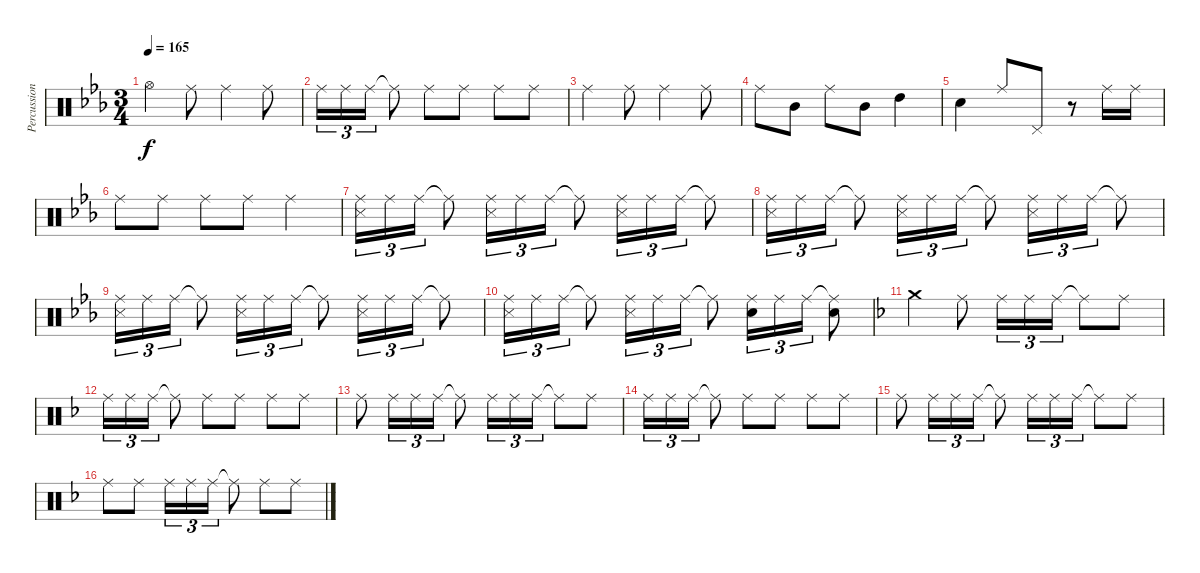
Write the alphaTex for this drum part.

\track ("Percussion" "Percussion") {instrument percussion}
\staff {score}
\articulation defaults
\ts (3 4)
\tempo 165
\clef neutral
\ks eb "Hi-Hat (open)".4{dy f} "Ride (middle)".8 "Ride (middle)".4 "Ride (middle)".8
|
"Ride (middle)".16{tu (3 2)} "Ride (middle)".16{tu (3 2)} "Ride (middle)".16{tu (3 2)} "Ride (middle)"{t}.8 "Ride (middle)".8 "Ride (middle)".8 "Ride (middle)".8 "Ride (middle)".8 |
"Ride (middle)".4 "Ride (middle)".8 "Ride (middle)".4 "Ride (middle)".8 |
"Ride (middle)".8 "Mid Tom (hit)".8 "Ride (middle)".8 "Mid Tom (hit)".8 "High Tom (hit)".4 |
"Snare (hit) 2".4 "Ride (middle)".8 "Pedal Hi-Hat (hit)".8 r.8 "Ride (middle)".16 "Ride (middle)".16 |
"Ride (middle)".8 "Ride (middle)".8 "Ride (middle)".8 "Ride (middle)".8 "Ride (middle)".4 |
("Ride (middle)" "Snare (side stick) 3").16{tu (3 2)} "Ride (middle)".16{tu (3 2)} "Ride (middle)".16{tu (3 2)} "Ride (middle)"{t}.8 ("Ride (middle)" "Snare (side stick) 3").16{tu (3 2)} "Ride (middle)".16{tu (3 2)} "Ride (middle)".16{tu (3 2)} "Ride (middle)"{t}.8 ("Ride (middle)" "Snare (side stick) 3").16{tu (3 2)} "Ride (middle)".16{tu (3 2)} "Ride (middle)".16{tu (3 2)} "Ride (middle)"{t}.8 |
("Ride (middle)" "Snare (side stick) 3").16{tu (3 2)} "Ride (middle)".16{tu (3 2)} "Ride (middle)".16{tu (3 2)} "Ride (middle)"{t}.8 ("Ride (middle)" "Snare (side stick) 3").16{tu (3 2)} "Ride (middle)".16{tu (3 2)} "Ride (middle)".16{tu (3 2)} "Ride (middle)"{t}.8 ("Ride (middle)" "Snare (side stick) 3").16{tu (3 2)} "Ride (middle)".16{tu (3 2)} "Ride (middle)".16{tu (3 2)} "Ride (middle)"{t}.8 |
("Ride (middle)" "Snare (side stick) 3").16{tu (3 2)} "Ride (middle)".16{tu (3 2)} "Ride (middle)".16{tu (3 2)} "Ride (middle)"{t}.8 ("Ride (middle)" "Snare (side stick) 3").16{tu (3 2)} "Ride (middle)".16{tu (3 2)} "Ride (middle)".16{tu (3 2)} "Ride (middle)"{t}.8 ("Ride (middle)" "Snare (side stick) 3").16{tu (3 2)} "Ride (middle)".16{tu (3 2)} "Ride (middle)".16{tu (3 2)} "Ride (middle)"{t}.8 |
("Ride (middle)" "Snare (side stick) 3").16{tu (3 2)} "Ride (middle)".16{tu (3 2)} "Ride (middle)".16{tu (3 2)} "Ride (middle)"{t}.8 ("Ride (middle)" "Snare (side stick) 3").16{tu (3 2)} "Ride (middle)".16{tu (3 2)} "Ride (middle)".16{tu (3 2)} "Ride (middle)"{t}.8 ("Ride (middle)" "Snare (hit) 2").16{tu (3 2)} "Ride (middle)".16{tu (3 2)} "Ride (middle)".16{tu (3 2)} ("Ride (middle)"{t} "Snare (hit) 2").8 |
\ks f "Crash medium (hit)".4 "Ride (middle)".8 "Ride (middle)".16{tu (3 2)} "Ride (middle)".16{tu (3 2)} "Ride (middle)".16{tu (3 2)} "Ride (middle)"{t}.8 "Ride (middle)".8
|
"Ride (middle)".16{tu (3 2)} "Ride (middle)".16{tu (3 2)} "Ride (middle)".16{tu (3 2)} "Ride (middle)"{t}.8 "Ride (middle)".8 "Ride (middle)".8 "Ride (middle)".8 "Ride (middle)".8 |
"Ride (middle)".8 "Ride (middle)".16{tu (3 2)} "Ride (middle)".16{tu (3 2)} "Ride (middle)".16{tu (3 2)} "Ride (middle)"{t}.8 "Ride (middle)".16{tu (3 2)} "Ride (middle)".16{tu (3 2)} "Ride (middle)".16{tu (3 2)} "Ride (middle)"{t}.8 "Ride (middle)".8 |
"Ride (middle)".16{tu (3 2)} "Ride (middle)".16{tu (3 2)} "Ride (middle)".16{tu (3 2)} "Ride (middle)"{t}.8 "Ride (middle)".8 "Ride (middle)".8 "Ride (middle)".8 "Ride (middle)".8 |
"Ride (middle)".8 "Ride (middle)".16{tu (3 2)} "Ride (middle)".16{tu (3 2)} "Ride (middle)".16{tu (3 2)} "Ride (middle)"{t}.8 "Ride (middle)".16{tu (3 2)} "Ride (middle)".16{tu (3 2)} "Ride (middle)".16{tu (3 2)} "Ride (middle)"{t}.8 "Ride (middle)".8 |
"Ride (middle)".8 "Ride (middle)".8 "Ride (middle)".16{tu (3 2)} "Ride (middle)".16{tu (3 2)} "Ride (middle)".16{tu (3 2)} "Ride (middle)"{t}.8 "Ride (middle)".8 "Ride (middle)".8
